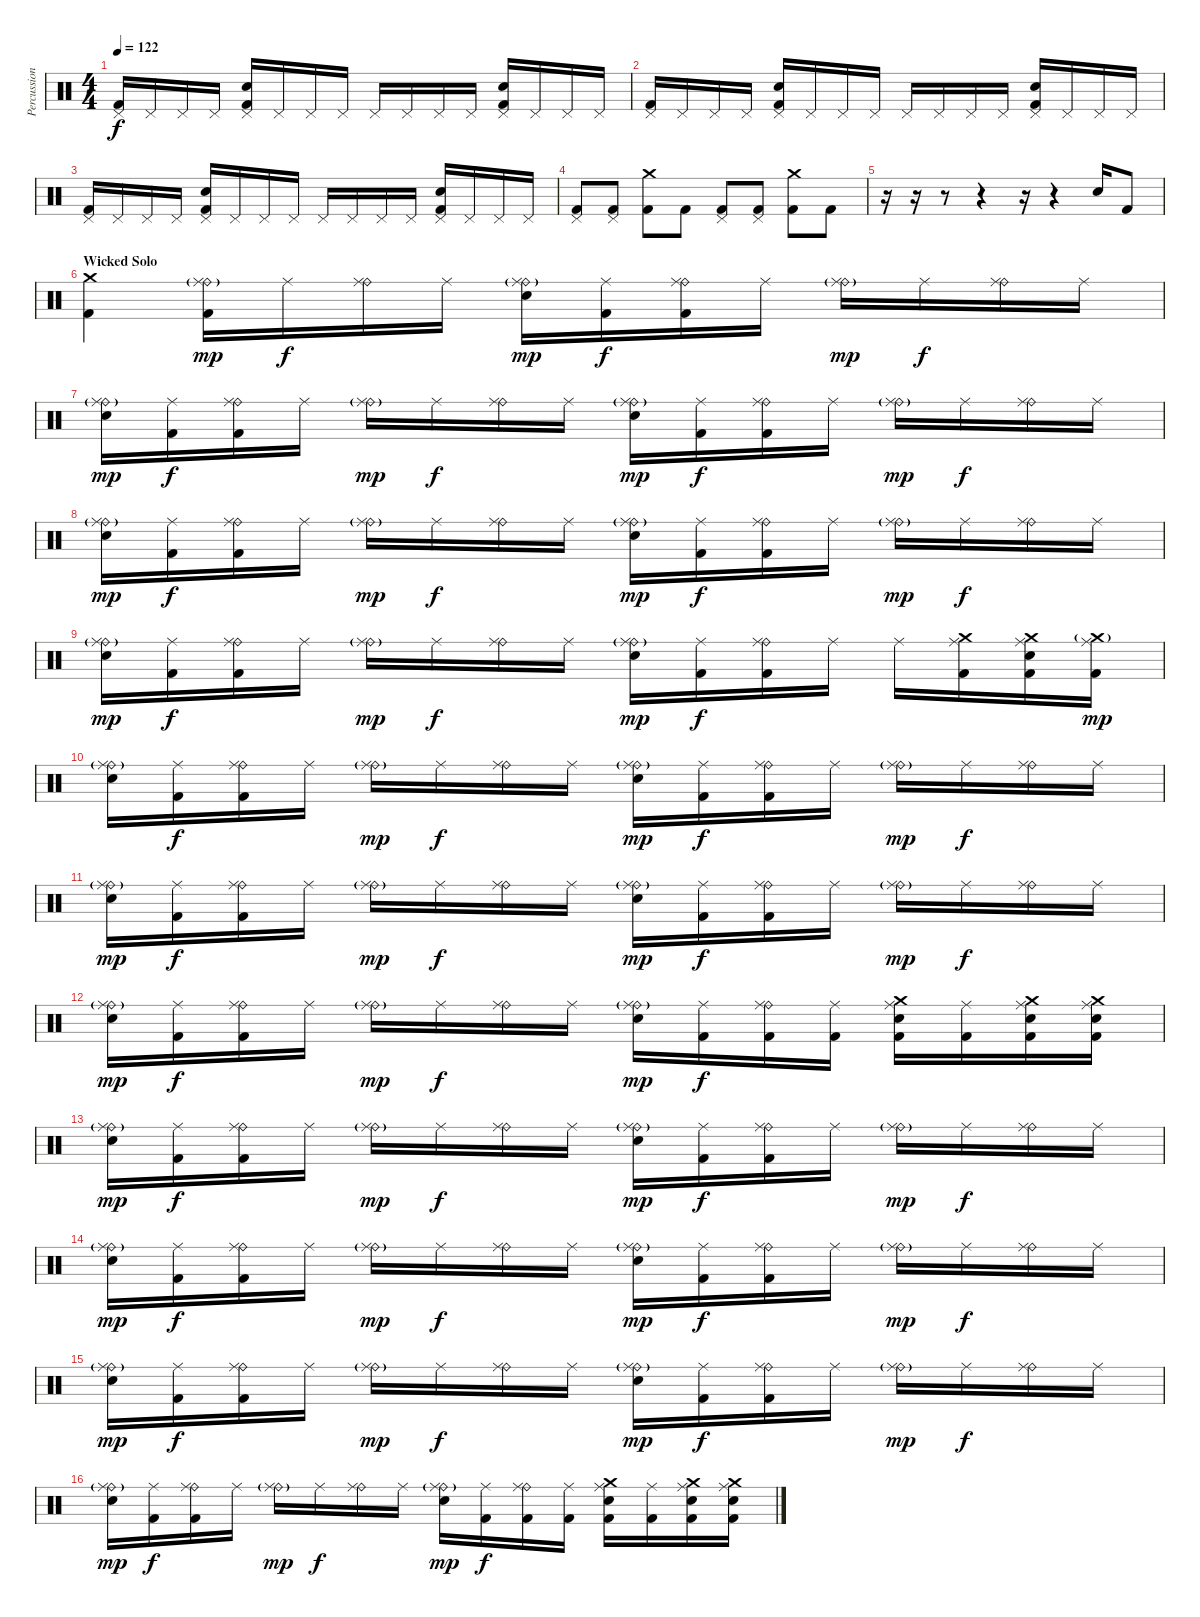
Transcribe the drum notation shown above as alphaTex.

\track ("Percussion" "Percussion") {instrument percussion}
\staff {score}
\articulation defaults
\ts (4 4)
\tempo 122
\clef neutral
\ks c
("Pedal Hi-Hat (hit)" "Kick (hit) 2").16{dy f} "Pedal Hi-Hat (hit)".16 "Pedal Hi-Hat (hit)".16 "Pedal Hi-Hat (hit)".16 ("Pedal Hi-Hat (hit)" "Snare (hit) 2" "Kick (hit) 2").16 "Pedal Hi-Hat (hit)".16 "Pedal Hi-Hat (hit)".16 "Pedal Hi-Hat (hit)".16 "Pedal Hi-Hat (hit)".16 "Pedal Hi-Hat (hit)".16 "Pedal Hi-Hat (hit)".16 "Pedal Hi-Hat (hit)".16 ("Pedal Hi-Hat (hit)" "Snare (hit) 2" "Kick (hit) 2").16 "Pedal Hi-Hat (hit)".16 "Pedal Hi-Hat (hit)".16 "Pedal Hi-Hat (hit)".16 |
("Pedal Hi-Hat (hit)" "Kick (hit) 2").16 "Pedal Hi-Hat (hit)".16 "Pedal Hi-Hat (hit)".16 "Pedal Hi-Hat (hit)".16 ("Pedal Hi-Hat (hit)" "Snare (hit) 2" "Kick (hit) 2").16 "Pedal Hi-Hat (hit)".16 "Pedal Hi-Hat (hit)".16 "Pedal Hi-Hat (hit)".16 "Pedal Hi-Hat (hit)".16 "Pedal Hi-Hat (hit)".16 "Pedal Hi-Hat (hit)".16 "Pedal Hi-Hat (hit)".16 ("Pedal Hi-Hat (hit)" "Snare (hit) 2" "Kick (hit) 2").16 "Pedal Hi-Hat (hit)".16 "Pedal Hi-Hat (hit)".16 "Pedal Hi-Hat (hit)".16 |
("Pedal Hi-Hat (hit)" "Kick (hit) 2").16 "Pedal Hi-Hat (hit)".16 "Pedal Hi-Hat (hit)".16 "Pedal Hi-Hat (hit)".16 ("Pedal Hi-Hat (hit)" "Snare (hit) 2" "Kick (hit) 2").16 "Pedal Hi-Hat (hit)".16 "Pedal Hi-Hat (hit)".16 "Pedal Hi-Hat (hit)".16 "Pedal Hi-Hat (hit)".16 "Pedal Hi-Hat (hit)".16 "Pedal Hi-Hat (hit)".16 "Pedal Hi-Hat (hit)".16 ("Pedal Hi-Hat (hit)" "Snare (hit) 2" "Kick (hit) 2").16 "Pedal Hi-Hat (hit)".16 "Pedal Hi-Hat (hit)".16 "Pedal Hi-Hat (hit)".16 |
("Pedal Hi-Hat (hit)" "Kick (hit) 2").8 ("Pedal Hi-Hat (hit)" "Kick (hit) 2").8 ("Crash medium (hit)" "Kick (hit) 2").8 "Kick (hit) 2".8 ("Pedal Hi-Hat (hit)" "Kick (hit) 2").8 ("Pedal Hi-Hat (hit)" "Kick (hit) 2").8 ("Crash medium (hit)" "Kick (hit) 2").8 "Kick (hit) 2".8 |
r.16 r.16 r.8 r.4 r.16 r.4 "Snare (hit) 2".16 "Kick (hit) 2".8 |
\section ("" "Wicked Solo")
("Crash medium (hit)" "Kick (hit) 2").4 ("Ride (bell)"{g} "Ride (middle)" "Kick (hit) 2").16{dy mp} "Ride (middle)".16{dy f} ("Ride (bell)" "Ride (middle)").16 "Ride (middle)".16 ("Ride (bell)"{g} "Ride (middle)"{g} "Snare (hit) 2").16{dy mp} ("Ride (middle)" "Kick (hit) 2").16{dy f} ("Ride (bell)" "Ride (middle)" "Kick (hit) 2").16 "Ride (middle)".16 ("Ride (bell)"{g} "Ride (middle)").16{dy mp} "Ride (middle)".16{dy f} ("Ride (bell)" "Ride (middle)").16 "Ride (middle)".16 |
("Ride (bell)"{g} "Ride (middle)"{g} "Snare (hit) 2").16{dy mp} ("Ride (middle)" "Kick (hit) 2").16{dy f} ("Ride (bell)" "Ride (middle)" "Kick (hit) 2").16 "Ride (middle)".16 ("Ride (bell)"{g} "Ride (middle)").16{dy mp} "Ride (middle)".16{dy f} ("Ride (bell)" "Ride (middle)").16 "Ride (middle)".16 ("Ride (bell)"{g} "Ride (middle)"{g} "Snare (hit) 2").16{dy mp} ("Ride (middle)" "Kick (hit) 2").16{dy f} ("Ride (bell)" "Ride (middle)" "Kick (hit) 2").16 "Ride (middle)".16 ("Ride (bell)"{g} "Ride (middle)").16{dy mp} "Ride (middle)".16{dy f} ("Ride (bell)" "Ride (middle)").16 "Ride (middle)".16 |
("Ride (bell)"{g} "Ride (middle)"{g} "Snare (hit) 2").16{dy mp} ("Ride (middle)" "Kick (hit) 2").16{dy f} ("Ride (bell)" "Ride (middle)" "Kick (hit) 2").16 "Ride (middle)".16 ("Ride (bell)"{g} "Ride (middle)").16{dy mp} "Ride (middle)".16{dy f} ("Ride (bell)" "Ride (middle)").16 "Ride (middle)".16 ("Ride (bell)"{g} "Ride (middle)"{g} "Snare (hit) 2").16{dy mp} ("Ride (middle)" "Kick (hit) 2").16{dy f} ("Ride (bell)" "Ride (middle)" "Kick (hit) 2").16 "Ride (middle)".16 ("Ride (bell)"{g} "Ride (middle)").16{dy mp} "Ride (middle)".16{dy f} ("Ride (bell)" "Ride (middle)").16 "Ride (middle)".16 |
("Ride (bell)"{g} "Ride (middle)"{g} "Snare (hit) 2").16{dy mp} ("Ride (middle)" "Kick (hit) 2").16{dy f} ("Ride (bell)" "Ride (middle)" "Kick (hit) 2").16 "Ride (middle)".16 ("Ride (bell)"{g} "Ride (middle)").16{dy mp} "Ride (middle)".16{dy f} ("Ride (bell)" "Ride (middle)").16 "Ride (middle)".16 ("Ride (bell)"{g} "Ride (middle)"{g} "Snare (hit) 2").16{dy mp} ("Ride (middle)" "Kick (hit) 2").16{dy f} ("Ride (bell)" "Ride (middle)" "Kick (hit) 2").16 "Ride (middle)".16 "Ride (middle)".16 ("Crash medium (hit)" "Ride (middle)" "Kick (hit) 2").16 ("Crash medium (hit)" "Ride (middle)" "Snare (hit) 2" "Kick (hit) 2").16 ("Crash medium (hit)"{g} "Ride (middle)" "Kick (hit) 2").16{dy mp} |
("Ride (bell)"{g} "Ride (middle)"{g} "Snare (hit) 2").16 ("Ride (middle)" "Kick (hit) 2").16{dy f} ("Ride (bell)" "Ride (middle)" "Kick (hit) 2").16 "Ride (middle)".16 ("Ride (bell)"{g} "Ride (middle)").16{dy mp} "Ride (middle)".16{dy f} ("Ride (bell)" "Ride (middle)").16 "Ride (middle)".16 ("Ride (bell)"{g} "Ride (middle)"{g} "Snare (hit) 2").16{dy mp} ("Ride (middle)" "Kick (hit) 2").16{dy f} ("Ride (bell)" "Ride (middle)" "Kick (hit) 2").16 "Ride (middle)".16 ("Ride (bell)"{g} "Ride (middle)").16{dy mp} "Ride (middle)".16{dy f} ("Ride (bell)" "Ride (middle)").16 "Ride (middle)".16 |
("Ride (bell)"{g} "Ride (middle)"{g} "Snare (hit) 2").16{dy mp} ("Ride (middle)" "Kick (hit) 2").16{dy f} ("Ride (bell)" "Ride (middle)" "Kick (hit) 2").16 "Ride (middle)".16 ("Ride (bell)"{g} "Ride (middle)").16{dy mp} "Ride (middle)".16{dy f} ("Ride (bell)" "Ride (middle)").16 "Ride (middle)".16 ("Ride (bell)"{g} "Ride (middle)"{g} "Snare (hit) 2").16{dy mp} ("Ride (middle)" "Kick (hit) 2").16{dy f} ("Ride (bell)" "Ride (middle)" "Kick (hit) 2").16 "Ride (middle)".16 ("Ride (bell)"{g} "Ride (middle)").16{dy mp} "Ride (middle)".16{dy f} ("Ride (bell)" "Ride (middle)").16 "Ride (middle)".16 |
("Ride (bell)"{g} "Ride (middle)"{g} "Snare (hit) 2").16{dy mp} ("Ride (middle)" "Kick (hit) 2").16{dy f} ("Ride (bell)" "Ride (middle)" "Kick (hit) 2").16 "Ride (middle)".16 ("Ride (bell)"{g} "Ride (middle)").16{dy mp} "Ride (middle)".16{dy f} ("Ride (bell)" "Ride (middle)").16 "Ride (middle)".16 ("Ride (bell)"{g} "Ride (middle)"{g} "Snare (hit) 2").16{dy mp} ("Ride (middle)" "Kick (hit) 2").16{dy f} ("Ride (bell)" "Ride (middle)" "Kick (hit) 2").16 ("Ride (middle)" "Kick (hit) 2").16 ("Crash medium (hit)" "Ride (middle)" "Snare (hit) 2" "Kick (hit) 2").16 ("Ride (middle)" "Kick (hit) 2").16 ("Crash medium (hit)" "Ride (middle)" "Snare (hit) 2" "Kick (hit) 2").16 ("Crash medium (hit)" "Ride (middle)" "Snare (hit) 2" "Kick (hit) 2").16 |
("Ride (bell)"{g} "Ride (middle)"{g} "Snare (hit) 2").16{dy mp} ("Ride (middle)" "Kick (hit) 2").16{dy f} ("Ride (bell)" "Ride (middle)" "Kick (hit) 2").16 "Ride (middle)".16 ("Ride (bell)"{g} "Ride (middle)").16{dy mp} "Ride (middle)".16{dy f} ("Ride (bell)" "Ride (middle)").16 "Ride (middle)".16 ("Ride (bell)"{g} "Ride (middle)"{g} "Snare (hit) 2").16{dy mp} ("Ride (middle)" "Kick (hit) 2").16{dy f} ("Ride (bell)" "Ride (middle)" "Kick (hit) 2").16 "Ride (middle)".16 ("Ride (bell)"{g} "Ride (middle)").16{dy mp} "Ride (middle)".16{dy f} ("Ride (bell)" "Ride (middle)").16 "Ride (middle)".16 |
("Ride (bell)"{g} "Ride (middle)"{g} "Snare (hit) 2").16{dy mp} ("Ride (middle)" "Kick (hit) 2").16{dy f} ("Ride (bell)" "Ride (middle)" "Kick (hit) 2").16 "Ride (middle)".16 ("Ride (bell)"{g} "Ride (middle)").16{dy mp} "Ride (middle)".16{dy f} ("Ride (bell)" "Ride (middle)").16 "Ride (middle)".16 ("Ride (bell)"{g} "Ride (middle)"{g} "Snare (hit) 2").16{dy mp} ("Ride (middle)" "Kick (hit) 2").16{dy f} ("Ride (bell)" "Ride (middle)" "Kick (hit) 2").16 "Ride (middle)".16 ("Ride (bell)"{g} "Ride (middle)").16{dy mp} "Ride (middle)".16{dy f} ("Ride (bell)" "Ride (middle)").16 "Ride (middle)".16 |
("Ride (bell)"{g} "Ride (middle)"{g} "Snare (hit) 2").16{dy mp} ("Ride (middle)" "Kick (hit) 2").16{dy f} ("Ride (bell)" "Ride (middle)" "Kick (hit) 2").16 "Ride (middle)".16 ("Ride (bell)"{g} "Ride (middle)").16{dy mp} "Ride (middle)".16{dy f} ("Ride (bell)" "Ride (middle)").16 "Ride (middle)".16 ("Ride (bell)"{g} "Ride (middle)"{g} "Snare (hit) 2").16{dy mp} ("Ride (middle)" "Kick (hit) 2").16{dy f} ("Ride (bell)" "Ride (middle)" "Kick (hit) 2").16 "Ride (middle)".16 ("Ride (bell)"{g} "Ride (middle)").16{dy mp} "Ride (middle)".16{dy f} ("Ride (bell)" "Ride (middle)").16 "Ride (middle)".16 |
("Ride (bell)"{g} "Ride (middle)"{g} "Snare (hit) 2").16{dy mp} ("Ride (middle)" "Kick (hit) 2").16{dy f} ("Ride (bell)" "Ride (middle)" "Kick (hit) 2").16 "Ride (middle)".16 ("Ride (bell)"{g} "Ride (middle)").16{dy mp} "Ride (middle)".16{dy f} ("Ride (bell)" "Ride (middle)").16 "Ride (middle)".16 ("Ride (bell)"{g} "Ride (middle)"{g} "Snare (hit) 2").16{dy mp} ("Ride (middle)" "Kick (hit) 2").16{dy f} ("Ride (bell)" "Ride (middle)" "Kick (hit) 2").16 ("Ride (middle)" "Kick (hit) 2").16 ("Crash medium (hit)" "Ride (middle)" "Snare (hit) 2" "Kick (hit) 2").16 ("Ride (middle)" "Kick (hit) 2").16 ("Crash medium (hit)" "Ride (middle)" "Snare (hit) 2" "Kick (hit) 2").16 ("Crash medium (hit)" "Ride (middle)" "Snare (hit) 2" "Kick (hit) 2").16
